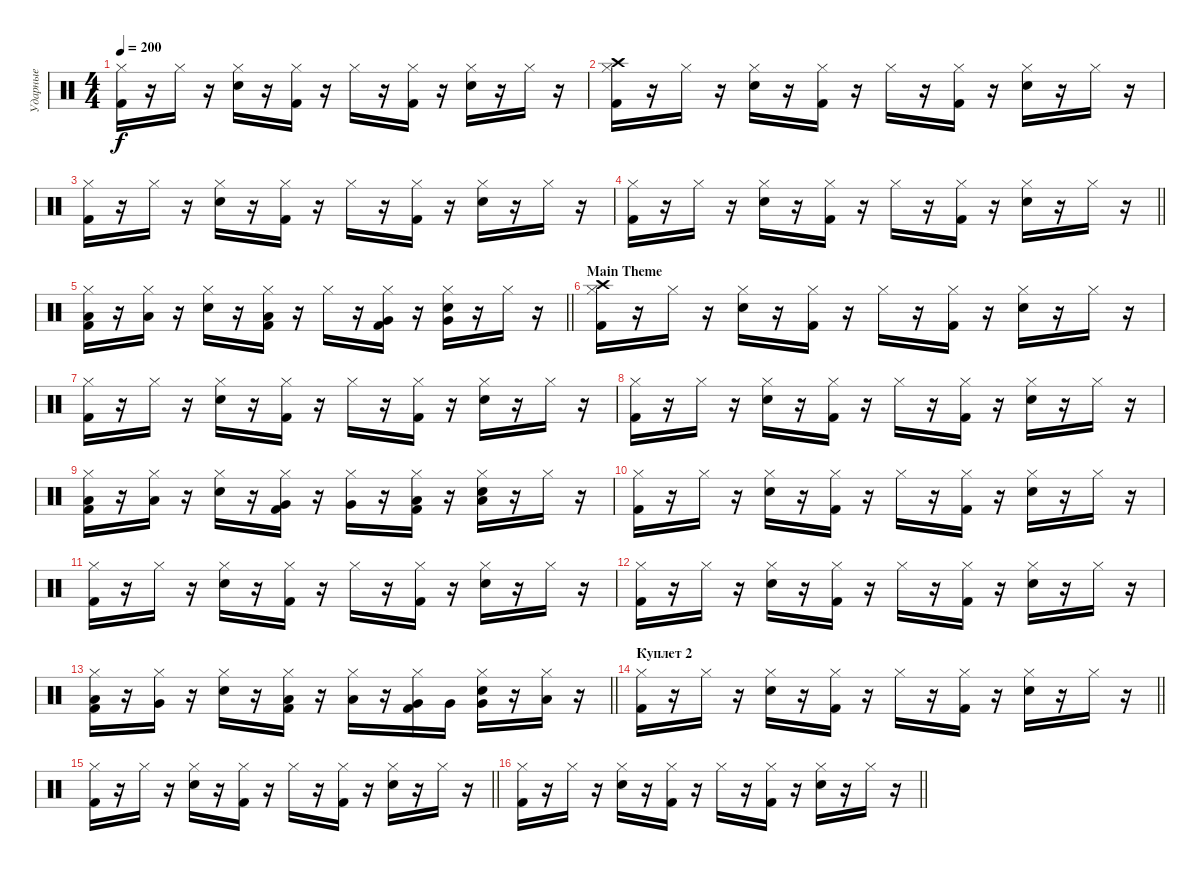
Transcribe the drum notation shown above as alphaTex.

\track ("Ударные" "Ударные") {instrument percussion}
\staff {score}
\articulation defaults
\ts (4 4)
\tempo 200
\clef neutral
\ks c
("Kick (hit) 2" "Hi-Hat (closed)").16{dy f} r.16 "Hi-Hat (closed)".16 r.16 ("Snare (hit) 2" "Hi-Hat (closed)").16 r.16 ("Kick (hit) 2" "Hi-Hat (closed)").16 r.16 "Hi-Hat (closed)".16 r.16 ("Kick (hit) 2" "Hi-Hat (closed)").16 r.16 ("Snare (hit) 2" "Hi-Hat (closed)").16 r.16 "Hi-Hat (closed)".16 r.16 |
("Kick (hit) 2" "Crash high (hit)" "Hi-Hat (closed)").16 r.16 "Hi-Hat (closed)".16 r.16 ("Snare (hit) 2" "Hi-Hat (closed)").16 r.16 ("Kick (hit) 2" "Hi-Hat (closed)").16 r.16 "Hi-Hat (closed)".16 r.16 ("Kick (hit) 2" "Hi-Hat (closed)").16 r.16 ("Snare (hit) 2" "Hi-Hat (closed)").16 r.16 "Hi-Hat (closed)".16 r.16 |
("Kick (hit) 2" "Hi-Hat (closed)").16 r.16 "Hi-Hat (closed)".16 r.16 ("Snare (hit) 2" "Hi-Hat (closed)").16 r.16 ("Kick (hit) 2" "Hi-Hat (closed)").16 r.16 "Hi-Hat (closed)".16 r.16 ("Kick (hit) 2" "Hi-Hat (closed)").16 r.16 ("Snare (hit) 2" "Hi-Hat (closed)").16 r.16 "Hi-Hat (closed)".16 r.16 |
\barLineRight lightlight
("Kick (hit) 2" "Hi-Hat (closed)").16 r.16 "Hi-Hat (closed)".16 r.16 ("Snare (hit) 2" "Hi-Hat (closed)").16 r.16 ("Kick (hit) 2" "Hi-Hat (closed)").16 r.16 "Hi-Hat (closed)".16 r.16 ("Kick (hit) 2" "Hi-Hat (closed)").16 r.16 ("Snare (hit) 2" "Hi-Hat (closed)").16 r.16 "Hi-Hat (closed)".16 r.16 |
\barLineRight lightlight
("Kick (hit) 2" "Low Floor Tom (hit)" "Hi-Hat (closed)").16 r.16 ("Low Floor Tom (hit)" "Hi-Hat (closed)").16 r.16 ("Snare (hit) 2" "Hi-Hat (closed)").16 r.16 ("Kick (hit) 2" "Low Floor Tom (hit)" "Hi-Hat (closed)").16 r.16 "Hi-Hat (closed)".16 r.16 ("Kick (hit) 2" "Very Low Tom (hit)" "Hi-Hat (closed)").16 r.16 ("Snare (hit) 2" "Very Low Tom (hit)" "Hi-Hat (closed)").16 r.16 "Hi-Hat (closed)".16 r.16 |
\section ("" "Main Theme")
("Kick (hit) 2" "Crash high (hit)" "Hi-Hat (closed)").16 r.16 "Hi-Hat (closed)".16 r.16 ("Snare (hit) 2" "Hi-Hat (closed)").16 r.16 ("Kick (hit) 2" "Hi-Hat (closed)").16 r.16 "Hi-Hat (closed)".16 r.16 ("Kick (hit) 2" "Hi-Hat (closed)").16 r.16 ("Snare (hit) 2" "Hi-Hat (closed)").16 r.16 "Hi-Hat (closed)".16 r.16 |
("Kick (hit) 2" "Hi-Hat (closed)").16 r.16 "Hi-Hat (closed)".16 r.16 ("Snare (hit) 2" "Hi-Hat (closed)").16 r.16 ("Kick (hit) 2" "Hi-Hat (closed)").16 r.16 "Hi-Hat (closed)".16 r.16 ("Kick (hit) 2" "Hi-Hat (closed)").16 r.16 ("Snare (hit) 2" "Hi-Hat (closed)").16 r.16 "Hi-Hat (closed)".16 r.16 |
("Kick (hit) 2" "Hi-Hat (closed)").16 r.16 "Hi-Hat (closed)".16 r.16 ("Snare (hit) 2" "Hi-Hat (closed)").16 r.16 ("Kick (hit) 2" "Hi-Hat (closed)").16 r.16 "Hi-Hat (closed)".16 r.16 ("Kick (hit) 2" "Hi-Hat (closed)").16 r.16 ("Snare (hit) 2" "Hi-Hat (closed)").16 r.16 "Hi-Hat (closed)".16 r.16 |
("Kick (hit) 2" "Low Floor Tom (hit)" "Hi-Hat (closed)").16 r.16 ("Low Floor Tom (hit)" "Hi-Hat (closed)").16 r.16 ("Snare (hit) 2" "Hi-Hat (closed)").16 r.16 ("Kick (hit) 2" "Very Low Tom (hit)" "Hi-Hat (closed)").16 r.16 ("Very Low Tom (hit)" "Hi-Hat (closed)").16 r.16 ("Kick (hit) 2" "Low Tom (hit)" "Hi-Hat (closed)").16 r.16 ("Snare (hit) 2" "Low Tom (hit)" "Hi-Hat (closed)").16 r.16 "Hi-Hat (closed)".16 r.16 |
("Kick (hit) 2" "Hi-Hat (closed)").16 r.16 "Hi-Hat (closed)".16 r.16 ("Snare (hit) 2" "Hi-Hat (closed)").16 r.16 ("Kick (hit) 2" "Hi-Hat (closed)").16 r.16 "Hi-Hat (closed)".16 r.16 ("Kick (hit) 2" "Hi-Hat (closed)").16 r.16 ("Snare (hit) 2" "Hi-Hat (closed)").16 r.16 "Hi-Hat (closed)".16 r.16 |
("Kick (hit) 2" "Hi-Hat (closed)").16 r.16 "Hi-Hat (closed)".16 r.16 ("Snare (hit) 2" "Hi-Hat (closed)").16 r.16 ("Kick (hit) 2" "Hi-Hat (closed)").16 r.16 "Hi-Hat (closed)".16 r.16 ("Kick (hit) 2" "Hi-Hat (closed)").16 r.16 ("Snare (hit) 2" "Hi-Hat (closed)").16 r.16 "Hi-Hat (closed)".16 r.16 |
("Kick (hit) 2" "Hi-Hat (closed)").16 r.16 "Hi-Hat (closed)".16 r.16 ("Snare (hit) 2" "Hi-Hat (closed)").16 r.16 ("Kick (hit) 2" "Hi-Hat (closed)").16 r.16 "Hi-Hat (closed)".16 r.16 ("Kick (hit) 2" "Hi-Hat (closed)").16 r.16 ("Snare (hit) 2" "Hi-Hat (closed)").16 r.16 "Hi-Hat (closed)".16 r.16 |
\barLineRight lightlight
("Kick (hit) 2" "Low Floor Tom (hit)" "Hi-Hat (closed)").16 r.16 ("Very Low Tom (hit)" "Hi-Hat (closed)").16 r.16 ("Snare (hit) 2" "Hi-Hat (closed)").16 r.16 ("Kick (hit) 2" "Low Floor Tom (hit)" "Hi-Hat (closed)").16 r.16 ("Low Floor Tom (hit)" "Hi-Hat (closed)").16 r.16 ("Kick (hit) 2" "Very Low Tom (hit)" "Hi-Hat (closed)").16 "Very Low Tom (hit)".16 ("Snare (hit) 2" "Very Low Tom (hit)" "Hi-Hat (closed)").16 r.16 ("Low Tom (hit)" "Hi-Hat (closed)").16 r.16 |
\section ("" "Куплет 2")
\barLineRight lightlight
("Kick (hit) 2" "Hi-Hat (closed)").16 r.16 "Hi-Hat (closed)".16 r.16 ("Snare (hit) 2" "Hi-Hat (closed)").16 r.16 ("Kick (hit) 2" "Hi-Hat (closed)").16 r.16 "Hi-Hat (closed)".16 r.16 ("Kick (hit) 2" "Hi-Hat (closed)").16 r.16 ("Snare (hit) 2" "Hi-Hat (closed)").16 r.16 "Hi-Hat (closed)".16 r.16 |
\barLineRight lightlight
("Kick (hit) 2" "Hi-Hat (closed)").16 r.16 "Hi-Hat (closed)".16 r.16 ("Snare (hit) 2" "Hi-Hat (closed)").16 r.16 ("Kick (hit) 2" "Hi-Hat (closed)").16 r.16 "Hi-Hat (closed)".16 r.16 ("Kick (hit) 2" "Hi-Hat (closed)").16 r.16 ("Snare (hit) 2" "Hi-Hat (closed)").16 r.16 "Hi-Hat (closed)".16 r.16 |
\barLineRight lightlight
("Kick (hit) 2" "Hi-Hat (closed)").16 r.16 "Hi-Hat (closed)".16 r.16 ("Snare (hit) 2" "Hi-Hat (closed)").16 r.16 ("Kick (hit) 2" "Hi-Hat (closed)").16 r.16 "Hi-Hat (closed)".16 r.16 ("Kick (hit) 2" "Hi-Hat (closed)").16 r.16 ("Snare (hit) 2" "Hi-Hat (closed)").16 r.16 "Hi-Hat (closed)".16 r.16
